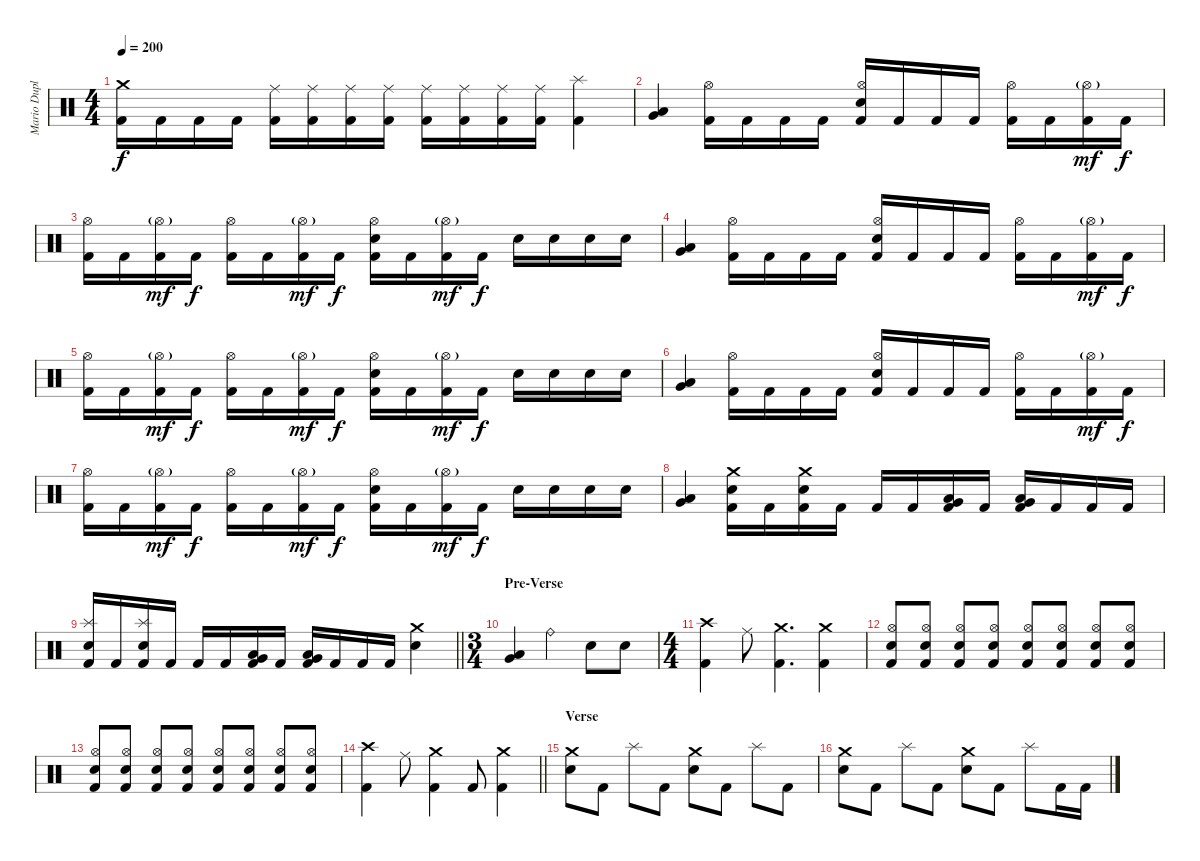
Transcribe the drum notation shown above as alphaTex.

\track ("Mario Duplantier" "Mario Dupl") {instrument percussion}
\staff {score}
\articulation defaults
\ts (4 4)
\tempo 200
\clef neutral
\ks c
("Crash medium (hit)" "Kick (hit) 2").16{dy f} "Kick (hit) 2".16 "Kick (hit) 2".16 "Kick (hit) 2".16 ("Ride (middle)" "Kick (hit) 2").16 ("Ride (middle)" "Kick (hit) 2").16 ("Ride (middle)" "Kick (hit) 2").16 ("Ride (middle)" "Kick (hit) 2").16 ("Ride (middle)" "Kick (hit) 2").16 ("Ride (middle)" "Kick (hit) 2").16 ("Ride (middle)" "Kick (hit) 2").16 ("Ride (middle)" "Kick (hit) 2").16 ("Splash (hit)" "Kick (hit) 2").4 |
("Low Floor Tom (hit)" "Very Low Tom (hit)").4 ("Hi-Hat (open)" "Kick (hit) 2").16 "Kick (hit) 2".16 "Kick (hit) 2".16 "Kick (hit) 2".16 ("Hi-Hat (open)" "Electric Snare (hit)" "Kick (hit) 2").16 "Kick (hit) 2".16 "Kick (hit) 2".16 "Kick (hit) 2".16 ("Hi-Hat (open)" "Kick (hit) 2").16 "Kick (hit) 2".16 ("Hi-Hat (open)"{g} "Kick (hit) 2").16{dy mf} "Kick (hit) 2".16{dy f} |
("Hi-Hat (open)" "Kick (hit) 2").16 "Kick (hit) 2".16 ("Hi-Hat (open)"{g} "Kick (hit) 2").16{dy mf} "Kick (hit) 2".16{dy f} ("Hi-Hat (open)" "Kick (hit) 2").16 "Kick (hit) 2".16 ("Hi-Hat (open)"{g} "Kick (hit) 2").16{dy mf} "Kick (hit) 2".16{dy f} ("Hi-Hat (open)" "Electric Snare (hit)" "Kick (hit) 2").16 "Kick (hit) 2".16 ("Hi-Hat (open)"{g} "Kick (hit) 2").16{dy mf} "Kick (hit) 2".16{dy f} "Electric Snare (hit)".16 "Electric Snare (hit)".16 "Electric Snare (hit)".16 "Electric Snare (hit)".16 |
("Low Floor Tom (hit)" "Very Low Tom (hit)").4 ("Hi-Hat (open)" "Kick (hit) 2").16 "Kick (hit) 2".16 "Kick (hit) 2".16 "Kick (hit) 2".16 ("Hi-Hat (open)" "Electric Snare (hit)" "Kick (hit) 2").16 "Kick (hit) 2".16 "Kick (hit) 2".16 "Kick (hit) 2".16 ("Hi-Hat (open)" "Kick (hit) 2").16 "Kick (hit) 2".16 ("Hi-Hat (open)"{g} "Kick (hit) 2").16{dy mf} "Kick (hit) 2".16{dy f} |
("Hi-Hat (open)" "Kick (hit) 2").16 "Kick (hit) 2".16 ("Hi-Hat (open)"{g} "Kick (hit) 2").16{dy mf} "Kick (hit) 2".16{dy f} ("Hi-Hat (open)" "Kick (hit) 2").16 "Kick (hit) 2".16 ("Hi-Hat (open)"{g} "Kick (hit) 2").16{dy mf} "Kick (hit) 2".16{dy f} ("Hi-Hat (open)" "Electric Snare (hit)" "Kick (hit) 2").16 "Kick (hit) 2".16 ("Hi-Hat (open)"{g} "Kick (hit) 2").16{dy mf} "Kick (hit) 2".16{dy f} "Electric Snare (hit)".16 "Electric Snare (hit)".16 "Electric Snare (hit)".16 "Electric Snare (hit)".16 |
("Low Floor Tom (hit)" "Very Low Tom (hit)").4 ("Hi-Hat (open)" "Kick (hit) 2").16 "Kick (hit) 2".16 "Kick (hit) 2".16 "Kick (hit) 2".16 ("Hi-Hat (open)" "Electric Snare (hit)" "Kick (hit) 2").16 "Kick (hit) 2".16 "Kick (hit) 2".16 "Kick (hit) 2".16 ("Hi-Hat (open)" "Kick (hit) 2").16 "Kick (hit) 2".16 ("Hi-Hat (open)"{g} "Kick (hit) 2").16{dy mf} "Kick (hit) 2".16{dy f} |
("Hi-Hat (open)" "Kick (hit) 2").16 "Kick (hit) 2".16 ("Hi-Hat (open)"{g} "Kick (hit) 2").16{dy mf} "Kick (hit) 2".16{dy f} ("Hi-Hat (open)" "Kick (hit) 2").16 "Kick (hit) 2".16 ("Hi-Hat (open)"{g} "Kick (hit) 2").16{dy mf} "Kick (hit) 2".16{dy f} ("Hi-Hat (open)" "Electric Snare (hit)" "Kick (hit) 2").16 "Kick (hit) 2".16 ("Hi-Hat (open)"{g} "Kick (hit) 2").16{dy mf} "Kick (hit) 2".16{dy f} "Electric Snare (hit)".16 "Electric Snare (hit)".16 "Electric Snare (hit)".16 "Electric Snare (hit)".16 |
("Very Low Tom (hit)" "Low Floor Tom (hit)").4 ("Crash medium (hit)" "Electric Snare (hit)" "Kick (hit) 2").16 "Kick (hit) 2".16 ("Crash medium (hit)" "Electric Snare (hit)" "Kick (hit) 2").16 "Kick (hit) 2".16 "Kick (hit) 2".16 "Kick (hit) 2".16 ("Very Low Tom (hit)" "Low Floor Tom (hit)" "Kick (hit) 2").16 "Kick (hit) 2".16 ("Very Low Tom (hit)" "Low Floor Tom (hit)" "Kick (hit) 2").16 "Kick (hit) 2".16 "Kick (hit) 2".16 "Kick (hit) 2".16 |
\barLineRight lightlight
("Splash (hit)" "Electric Snare (hit)" "Kick (hit) 2").16 "Kick (hit) 2".16 ("Splash (hit)" "Electric Snare (hit)" "Kick (hit) 2").16 "Kick (hit) 2".16 "Kick (hit) 2".16 "Kick (hit) 2".16 ("Very Low Tom (hit)" "Low Floor Tom (hit)" "Kick (hit) 2").16 "Kick (hit) 2".16 ("Very Low Tom (hit)" "Low Floor Tom (hit)" "Kick (hit) 2").16 "Kick (hit) 2".16 "Kick (hit) 2".16 "Kick (hit) 2".16 ("Crash medium (hit)" "Electric Snare (hit)").4 |
\ts (3 4)
\section ("" "Pre-Verse")
("Low Floor Tom (hit)" "Very Low Tom (hit)").4 "Ride (bell)".4 "Electric Snare (hit)".8 "Electric Snare (hit)".8 |
\ts (4 4)
("Crash high (hit)" "Kick (hit) 2").4 "Ride (middle)".8 ("Crash medium (hit)" "Kick (hit) 2").4{d} ("Crash medium (hit)" "Kick (hit) 2").4 |
("Hi-Hat (open)" "Electric Snare (hit)" "Kick (hit) 2").8 ("Hi-Hat (open)" "Electric Snare (hit)" "Kick (hit) 2").8 ("Hi-Hat (open)" "Electric Snare (hit)" "Kick (hit) 2").8 ("Hi-Hat (open)" "Electric Snare (hit)" "Kick (hit) 2").8 ("Hi-Hat (open)" "Electric Snare (hit)" "Kick (hit) 2").8 ("Hi-Hat (open)" "Electric Snare (hit)" "Kick (hit) 2").8 ("Hi-Hat (open)" "Electric Snare (hit)" "Kick (hit) 2").8 ("Hi-Hat (open)" "Electric Snare (hit)" "Kick (hit) 2").8 |
("Hi-Hat (open)" "Electric Snare (hit)" "Kick (hit) 2").8 ("Hi-Hat (open)" "Electric Snare (hit)" "Kick (hit) 2").8 ("Hi-Hat (open)" "Electric Snare (hit)" "Kick (hit) 2").8 ("Hi-Hat (open)" "Electric Snare (hit)" "Kick (hit) 2").8 ("Hi-Hat (open)" "Electric Snare (hit)" "Kick (hit) 2").8 ("Hi-Hat (open)" "Electric Snare (hit)" "Kick (hit) 2").8 ("Hi-Hat (open)" "Electric Snare (hit)" "Kick (hit) 2").8 ("Hi-Hat (open)" "Electric Snare (hit)" "Kick (hit) 2").8 |
\barLineRight lightlight
("Crash high (hit)" "Kick (hit) 2").4 "Ride (middle)".8 ("Crash medium (hit)" "Kick (hit) 2").4 "Kick (hit) 2".8 ("Crash medium (hit)" "Kick (hit) 2").4 |
\section ("" "Verse")
("Crash medium (hit)" "Electric Snare (hit)").8 "Kick (hit) 2".8 "Splash (hit)".8 "Kick (hit) 2".8 ("Crash medium (hit)" "Electric Snare (hit)").8 "Kick (hit) 2".8 "Splash (hit)".8 "Kick (hit) 2".8 |
("Crash medium (hit)" "Electric Snare (hit)").8 "Kick (hit) 2".8 "Splash (hit)".8 "Kick (hit) 2".8 ("Crash medium (hit)" "Electric Snare (hit)").8 "Kick (hit) 2".8 "Splash (hit)".8 "Kick (hit) 2".16 "Kick (hit) 2".16
